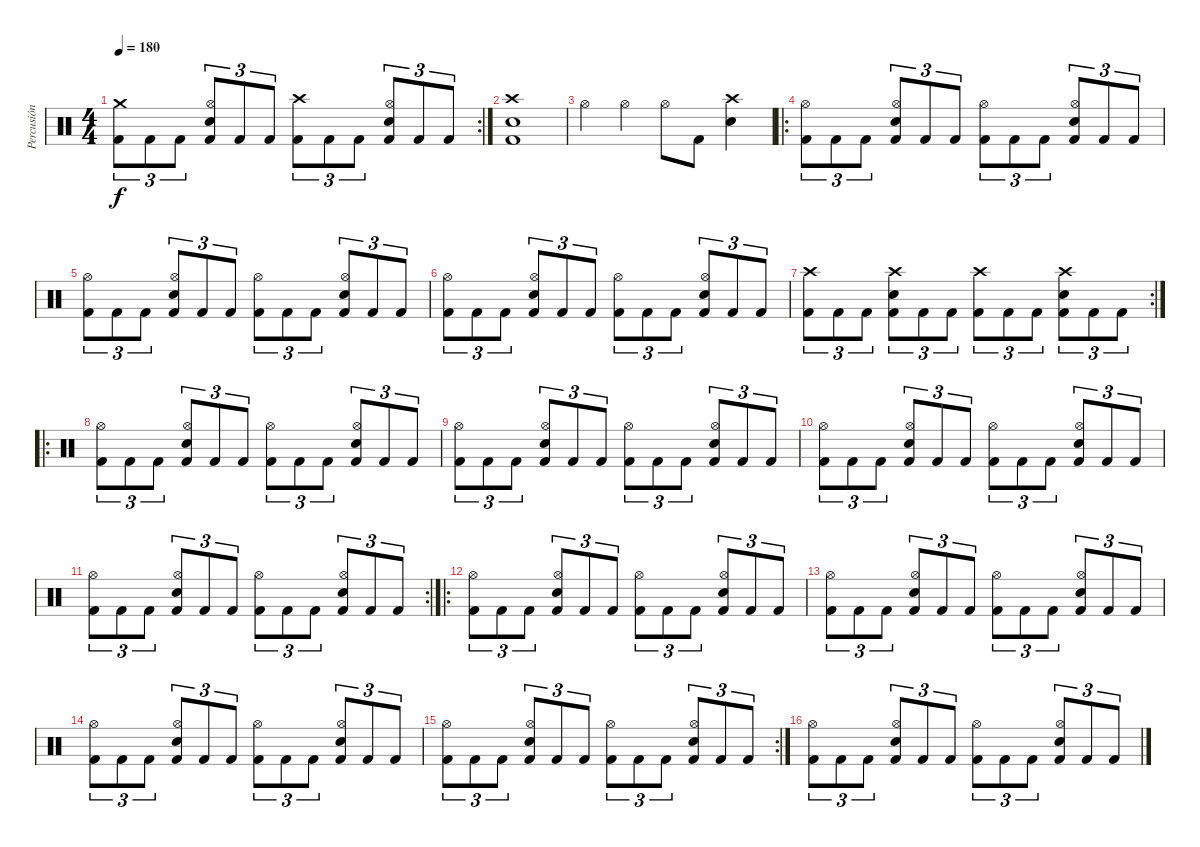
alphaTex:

\track ("Percusión" "Percusión") {instrument percussion}
\staff {score}
\articulation defaults
\rc 2
\ts (4 4)
\tempo 180
\clef neutral
\ks c
("Crash medium (hit)" "Kick (hit) 2").8{tu (3 2) dy f} "Kick (hit) 2".8{tu (3 2)} "Kick (hit) 2".8{tu (3 2)} ("Hi-Hat (open)" "Snare (hit) 2" "Kick (hit) 2").8{tu (3 2)} "Kick (hit) 2".8{tu (3 2)} "Kick (hit) 2".8{tu (3 2)} ("Crash high (hit)" "Kick (hit) 2").8{tu (3 2)} "Kick (hit) 2".8{tu (3 2)} "Kick (hit) 2".8{tu (3 2)} ("Hi-Hat (open)" "Snare (hit) 2" "Kick (hit) 2").8{tu (3 2)} "Kick (hit) 2".8{tu (3 2)} "Kick (hit) 2".8{tu (3 2)} |
("Crash high (hit)" "Snare (hit) 2" "Kick (hit) 2").1 |
"Hi-Hat (open)".4 "Hi-Hat (open)".4 "Hi-Hat (open)".8 "Kick (hit) 2".8 ("Crash high (hit)" "Snare (hit) 2").4 |
\ro
("Hi-Hat (open)" "Kick (hit) 2").8{tu (3 2)} "Kick (hit) 2".8{tu (3 2)} "Kick (hit) 2".8{tu (3 2)} ("Hi-Hat (open)" "Snare (hit) 2" "Kick (hit) 2").8{tu (3 2)} "Kick (hit) 2".8{tu (3 2)} "Kick (hit) 2".8{tu (3 2)} ("Hi-Hat (open)" "Kick (hit) 2").8{tu (3 2)} "Kick (hit) 2".8{tu (3 2)} "Kick (hit) 2".8{tu (3 2)} ("Hi-Hat (open)" "Snare (hit) 2" "Kick (hit) 2").8{tu (3 2)} "Kick (hit) 2".8{tu (3 2)} "Kick (hit) 2".8{tu (3 2)} |
("Hi-Hat (open)" "Kick (hit) 2").8{tu (3 2)} "Kick (hit) 2".8{tu (3 2)} "Kick (hit) 2".8{tu (3 2)} ("Hi-Hat (open)" "Snare (hit) 2" "Kick (hit) 2").8{tu (3 2)} "Kick (hit) 2".8{tu (3 2)} "Kick (hit) 2".8{tu (3 2)} ("Hi-Hat (open)" "Kick (hit) 2").8{tu (3 2)} "Kick (hit) 2".8{tu (3 2)} "Kick (hit) 2".8{tu (3 2)} ("Hi-Hat (open)" "Snare (hit) 2" "Kick (hit) 2").8{tu (3 2)} "Kick (hit) 2".8{tu (3 2)} "Kick (hit) 2".8{tu (3 2)} |
("Hi-Hat (open)" "Kick (hit) 2").8{tu (3 2)} "Kick (hit) 2".8{tu (3 2)} "Kick (hit) 2".8{tu (3 2)} ("Hi-Hat (open)" "Snare (hit) 2" "Kick (hit) 2").8{tu (3 2)} "Kick (hit) 2".8{tu (3 2)} "Kick (hit) 2".8{tu (3 2)} ("Hi-Hat (open)" "Kick (hit) 2").8{tu (3 2)} "Kick (hit) 2".8{tu (3 2)} "Kick (hit) 2".8{tu (3 2)} ("Hi-Hat (open)" "Snare (hit) 2" "Kick (hit) 2").8{tu (3 2)} "Kick (hit) 2".8{tu (3 2)} "Kick (hit) 2".8{tu (3 2)} |
\rc 2
("Crash high (hit)" "Kick (hit) 2").8{tu (3 2)} "Kick (hit) 2".8{tu (3 2)} "Kick (hit) 2".8{tu (3 2)} ("Crash high (hit)" "Snare (hit) 2" "Kick (hit) 2").8{tu (3 2)} "Kick (hit) 2".8{tu (3 2)} "Kick (hit) 2".8{tu (3 2)} ("Crash high (hit)" "Kick (hit) 2").8{tu (3 2)} "Kick (hit) 2".8{tu (3 2)} "Kick (hit) 2".8{tu (3 2)} ("Crash high (hit)" "Snare (hit) 2" "Kick (hit) 2").8{tu (3 2)} "Kick (hit) 2".8{tu (3 2)} "Kick (hit) 2".8{tu (3 2)} |
\ro
("Hi-Hat (open)" "Kick (hit) 2").8{tu (3 2)} "Kick (hit) 2".8{tu (3 2)} "Kick (hit) 2".8{tu (3 2)} ("Hi-Hat (open)" "Snare (hit) 2" "Kick (hit) 2").8{tu (3 2)} "Kick (hit) 2".8{tu (3 2)} "Kick (hit) 2".8{tu (3 2)} ("Hi-Hat (open)" "Kick (hit) 2").8{tu (3 2)} "Kick (hit) 2".8{tu (3 2)} "Kick (hit) 2".8{tu (3 2)} ("Hi-Hat (open)" "Snare (hit) 2" "Kick (hit) 2").8{tu (3 2)} "Kick (hit) 2".8{tu (3 2)} "Kick (hit) 2".8{tu (3 2)} |
("Hi-Hat (open)" "Kick (hit) 2").8{tu (3 2)} "Kick (hit) 2".8{tu (3 2)} "Kick (hit) 2".8{tu (3 2)} ("Hi-Hat (open)" "Snare (hit) 2" "Kick (hit) 2").8{tu (3 2)} "Kick (hit) 2".8{tu (3 2)} "Kick (hit) 2".8{tu (3 2)} ("Hi-Hat (open)" "Kick (hit) 2").8{tu (3 2)} "Kick (hit) 2".8{tu (3 2)} "Kick (hit) 2".8{tu (3 2)} ("Hi-Hat (open)" "Snare (hit) 2" "Kick (hit) 2").8{tu (3 2)} "Kick (hit) 2".8{tu (3 2)} "Kick (hit) 2".8{tu (3 2)} |
("Hi-Hat (open)" "Kick (hit) 2").8{tu (3 2)} "Kick (hit) 2".8{tu (3 2)} "Kick (hit) 2".8{tu (3 2)} ("Hi-Hat (open)" "Snare (hit) 2" "Kick (hit) 2").8{tu (3 2)} "Kick (hit) 2".8{tu (3 2)} "Kick (hit) 2".8{tu (3 2)} ("Hi-Hat (open)" "Kick (hit) 2").8{tu (3 2)} "Kick (hit) 2".8{tu (3 2)} "Kick (hit) 2".8{tu (3 2)} ("Hi-Hat (open)" "Snare (hit) 2" "Kick (hit) 2").8{tu (3 2)} "Kick (hit) 2".8{tu (3 2)} "Kick (hit) 2".8{tu (3 2)} |
\rc 2
("Hi-Hat (open)" "Kick (hit) 2").8{tu (3 2)} "Kick (hit) 2".8{tu (3 2)} "Kick (hit) 2".8{tu (3 2)} ("Hi-Hat (open)" "Snare (hit) 2" "Kick (hit) 2").8{tu (3 2)} "Kick (hit) 2".8{tu (3 2)} "Kick (hit) 2".8{tu (3 2)} ("Hi-Hat (open)" "Kick (hit) 2").8{tu (3 2)} "Kick (hit) 2".8{tu (3 2)} "Kick (hit) 2".8{tu (3 2)} ("Hi-Hat (open)" "Snare (hit) 2" "Kick (hit) 2").8{tu (3 2)} "Kick (hit) 2".8{tu (3 2)} "Kick (hit) 2".8{tu (3 2)} |
\ro
("Hi-Hat (open)" "Kick (hit) 2").8{tu (3 2)} "Kick (hit) 2".8{tu (3 2)} "Kick (hit) 2".8{tu (3 2)} ("Hi-Hat (open)" "Snare (hit) 2" "Kick (hit) 2").8{tu (3 2)} "Kick (hit) 2".8{tu (3 2)} "Kick (hit) 2".8{tu (3 2)} ("Hi-Hat (open)" "Kick (hit) 2").8{tu (3 2)} "Kick (hit) 2".8{tu (3 2)} "Kick (hit) 2".8{tu (3 2)} ("Hi-Hat (open)" "Snare (hit) 2" "Kick (hit) 2").8{tu (3 2)} "Kick (hit) 2".8{tu (3 2)} "Kick (hit) 2".8{tu (3 2)} |
("Hi-Hat (open)" "Kick (hit) 2").8{tu (3 2)} "Kick (hit) 2".8{tu (3 2)} "Kick (hit) 2".8{tu (3 2)} ("Hi-Hat (open)" "Snare (hit) 2" "Kick (hit) 2").8{tu (3 2)} "Kick (hit) 2".8{tu (3 2)} "Kick (hit) 2".8{tu (3 2)} ("Hi-Hat (open)" "Kick (hit) 2").8{tu (3 2)} "Kick (hit) 2".8{tu (3 2)} "Kick (hit) 2".8{tu (3 2)} ("Hi-Hat (open)" "Snare (hit) 2" "Kick (hit) 2").8{tu (3 2)} "Kick (hit) 2".8{tu (3 2)} "Kick (hit) 2".8{tu (3 2)} |
("Hi-Hat (open)" "Kick (hit) 2").8{tu (3 2)} "Kick (hit) 2".8{tu (3 2)} "Kick (hit) 2".8{tu (3 2)} ("Hi-Hat (open)" "Snare (hit) 2" "Kick (hit) 2").8{tu (3 2)} "Kick (hit) 2".8{tu (3 2)} "Kick (hit) 2".8{tu (3 2)} ("Hi-Hat (open)" "Kick (hit) 2").8{tu (3 2)} "Kick (hit) 2".8{tu (3 2)} "Kick (hit) 2".8{tu (3 2)} ("Hi-Hat (open)" "Snare (hit) 2" "Kick (hit) 2").8{tu (3 2)} "Kick (hit) 2".8{tu (3 2)} "Kick (hit) 2".8{tu (3 2)} |
\rc 2
("Hi-Hat (open)" "Kick (hit) 2").8{tu (3 2)} "Kick (hit) 2".8{tu (3 2)} "Kick (hit) 2".8{tu (3 2)} ("Hi-Hat (open)" "Snare (hit) 2" "Kick (hit) 2").8{tu (3 2)} "Kick (hit) 2".8{tu (3 2)} "Kick (hit) 2".8{tu (3 2)} ("Hi-Hat (open)" "Kick (hit) 2").8{tu (3 2)} "Kick (hit) 2".8{tu (3 2)} "Kick (hit) 2".8{tu (3 2)} ("Hi-Hat (open)" "Snare (hit) 2" "Kick (hit) 2").8{tu (3 2)} "Kick (hit) 2".8{tu (3 2)} "Kick (hit) 2".8{tu (3 2)} |
("Hi-Hat (open)" "Kick (hit) 2").8{tu (3 2)} "Kick (hit) 2".8{tu (3 2)} "Kick (hit) 2".8{tu (3 2)} ("Hi-Hat (open)" "Snare (hit) 2" "Kick (hit) 2").8{tu (3 2)} "Kick (hit) 2".8{tu (3 2)} "Kick (hit) 2".8{tu (3 2)} ("Hi-Hat (open)" "Kick (hit) 2").8{tu (3 2)} "Kick (hit) 2".8{tu (3 2)} "Kick (hit) 2".8{tu (3 2)} ("Hi-Hat (open)" "Snare (hit) 2" "Kick (hit) 2").8{tu (3 2)} "Kick (hit) 2".8{tu (3 2)} "Kick (hit) 2".8{tu (3 2)}
